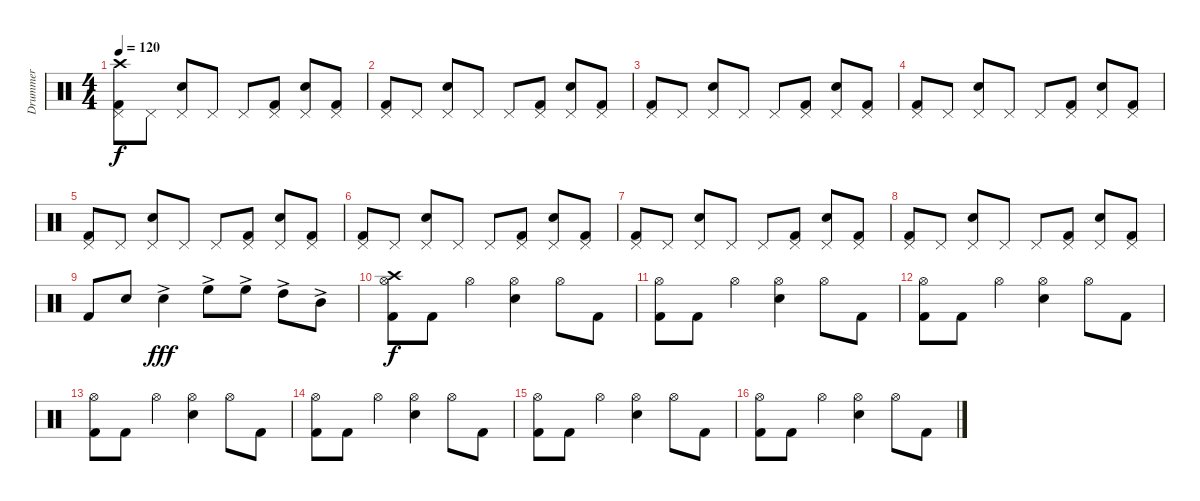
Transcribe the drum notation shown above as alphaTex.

\track ("Drummer" "Drummer") {instrument percussion}
\staff {score}
\articulation defaults
\ts (4 4)
\tempo 120
\clef neutral
\ks c
("Crash high (hit)" "Pedal Hi-Hat (hit)" "Kick (hit) 2").8{dy f} "Pedal Hi-Hat (hit)".8 ("Pedal Hi-Hat (hit)" "Snare (hit) 2").8 "Pedal Hi-Hat (hit)".8 "Pedal Hi-Hat (hit)".8 ("Pedal Hi-Hat (hit)" "Kick (hit) 2").8 ("Pedal Hi-Hat (hit)" "Snare (hit) 2").8 ("Pedal Hi-Hat (hit)" "Kick (hit) 2").8 |
("Pedal Hi-Hat (hit)" "Kick (hit) 2").8 "Pedal Hi-Hat (hit)".8 ("Pedal Hi-Hat (hit)" "Snare (hit) 2").8 "Pedal Hi-Hat (hit)".8 "Pedal Hi-Hat (hit)".8 ("Pedal Hi-Hat (hit)" "Kick (hit) 2").8 ("Pedal Hi-Hat (hit)" "Snare (hit) 2").8 ("Pedal Hi-Hat (hit)" "Kick (hit) 2").8 |
("Pedal Hi-Hat (hit)" "Kick (hit) 2").8 "Pedal Hi-Hat (hit)".8 ("Pedal Hi-Hat (hit)" "Snare (hit) 2").8 "Pedal Hi-Hat (hit)".8 "Pedal Hi-Hat (hit)".8 ("Pedal Hi-Hat (hit)" "Kick (hit) 2").8 ("Pedal Hi-Hat (hit)" "Snare (hit) 2").8 ("Pedal Hi-Hat (hit)" "Kick (hit) 2").8 |
("Pedal Hi-Hat (hit)" "Kick (hit) 2").8 "Pedal Hi-Hat (hit)".8 ("Pedal Hi-Hat (hit)" "Snare (hit) 2").8 "Pedal Hi-Hat (hit)".8 "Pedal Hi-Hat (hit)".8 ("Pedal Hi-Hat (hit)" "Kick (hit) 2").8 ("Pedal Hi-Hat (hit)" "Snare (hit) 2").8 ("Pedal Hi-Hat (hit)" "Kick (hit) 2").8 |
("Pedal Hi-Hat (hit)" "Kick (hit) 2").8 "Pedal Hi-Hat (hit)".8 ("Pedal Hi-Hat (hit)" "Snare (hit) 2").8 "Pedal Hi-Hat (hit)".8 "Pedal Hi-Hat (hit)".8 ("Pedal Hi-Hat (hit)" "Kick (hit) 2").8 ("Pedal Hi-Hat (hit)" "Snare (hit) 2").8 ("Pedal Hi-Hat (hit)" "Kick (hit) 2").8 |
("Pedal Hi-Hat (hit)" "Kick (hit) 2").8 "Pedal Hi-Hat (hit)".8 ("Pedal Hi-Hat (hit)" "Snare (hit) 2").8 "Pedal Hi-Hat (hit)".8 "Pedal Hi-Hat (hit)".8 ("Pedal Hi-Hat (hit)" "Kick (hit) 2").8 ("Pedal Hi-Hat (hit)" "Snare (hit) 2").8 ("Pedal Hi-Hat (hit)" "Kick (hit) 2").8 |
("Pedal Hi-Hat (hit)" "Kick (hit) 2").8 "Pedal Hi-Hat (hit)".8 ("Pedal Hi-Hat (hit)" "Snare (hit) 2").8 "Pedal Hi-Hat (hit)".8 "Pedal Hi-Hat (hit)".8 ("Pedal Hi-Hat (hit)" "Kick (hit) 2").8 ("Pedal Hi-Hat (hit)" "Snare (hit) 2").8 ("Pedal Hi-Hat (hit)" "Kick (hit) 2").8 |
("Pedal Hi-Hat (hit)" "Kick (hit) 2").8 "Pedal Hi-Hat (hit)".8 ("Pedal Hi-Hat (hit)" "Snare (hit) 2").8 "Pedal Hi-Hat (hit)".8 "Pedal Hi-Hat (hit)".8 ("Pedal Hi-Hat (hit)" "Kick (hit) 2").8 ("Pedal Hi-Hat (hit)" "Snare (hit) 2").8 ("Pedal Hi-Hat (hit)" "Kick (hit) 2").8 |
"Kick (hit) 2".8 "Snare (hit) 2".8 "Snare (hit) 2"{ac}.4{dy fff} "High Floor Tom (hit)"{ac}.8 "High Floor Tom (hit)"{ac}.8 "High Tom (hit)"{ac}.8 "Mid Tom (hit)"{ac}.8 |
("Crash high (hit)" "Hi-Hat (open)" "Kick (hit) 2").8{dy f} "Kick (hit) 2".8 "Hi-Hat (open)".4 ("Hi-Hat (open)" "Snare (hit) 2").4 "Hi-Hat (open)".8 "Kick (hit) 2".8 |
("Hi-Hat (open)" "Kick (hit) 2").8 "Kick (hit) 2".8 "Hi-Hat (open)".4 ("Hi-Hat (open)" "Snare (hit) 2").4 "Hi-Hat (open)".8 "Kick (hit) 2".8 |
("Hi-Hat (open)" "Kick (hit) 2").8 "Kick (hit) 2".8 "Hi-Hat (open)".4 ("Hi-Hat (open)" "Snare (hit) 2").4 "Hi-Hat (open)".8 "Kick (hit) 2".8 |
("Hi-Hat (open)" "Kick (hit) 2").8 "Kick (hit) 2".8 "Hi-Hat (open)".4 ("Hi-Hat (open)" "Snare (hit) 2").4 "Hi-Hat (open)".8 "Kick (hit) 2".8 |
("Hi-Hat (open)" "Kick (hit) 2").8 "Kick (hit) 2".8 "Hi-Hat (open)".4 ("Hi-Hat (open)" "Snare (hit) 2").4 "Hi-Hat (open)".8 "Kick (hit) 2".8 |
("Hi-Hat (open)" "Kick (hit) 2").8 "Kick (hit) 2".8 "Hi-Hat (open)".4 ("Hi-Hat (open)" "Snare (hit) 2").4 "Hi-Hat (open)".8 "Kick (hit) 2".8 |
("Hi-Hat (open)" "Kick (hit) 2").8 "Kick (hit) 2".8 "Hi-Hat (open)".4 ("Hi-Hat (open)" "Snare (hit) 2").4 "Hi-Hat (open)".8 "Kick (hit) 2".8
